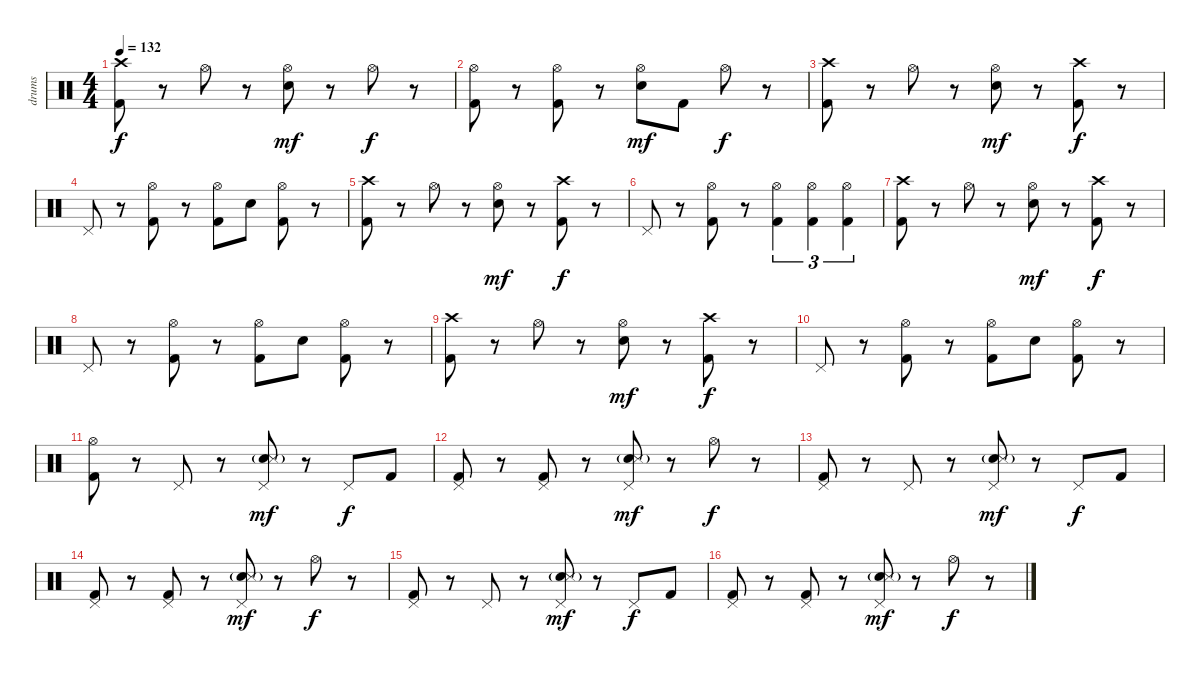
\track ("drums" "drums") {instrument percussion}
\staff {score}
\articulation defaults
\ts (4 4)
\tempo 132
\clef neutral
\ks c
("Crash high (hit)" "Kick (hit) 2").8{dy f} r.8 "Hi-Hat (open)".8 r.8 ("Hi-Hat (open)" "Snare (hit) 2").8{dy mf} r.8 "Hi-Hat (open)".8{dy f} r.8 |
("Hi-Hat (open)" "Kick (hit) 2").8 r.8 ("Hi-Hat (open)" "Kick (hit) 2").8 r.8 ("Hi-Hat (open)" "Snare (hit) 2").8{dy mf} "Kick (hit) 2".8 "Hi-Hat (open)".8{dy f} r.8 |
("Crash high (hit)" "Kick (hit) 2").8 r.8 "Hi-Hat (open)".8 r.8 ("Hi-Hat (open)" "Snare (hit) 2").8{dy mf} r.8 ("Crash high (hit)" "Kick (hit) 2").8{dy f} r.8 |
"Pedal Hi-Hat (hit)".8 r.8 ("Hi-Hat (open)" "Kick (hit) 2").8 r.8 ("Hi-Hat (open)" "Kick (hit) 2").8 "Snare (hit) 2".8 ("Hi-Hat (open)" "Kick (hit) 2").8 r.8 |
("Crash high (hit)" "Kick (hit) 2").8 r.8 "Hi-Hat (open)".8 r.8 ("Hi-Hat (open)" "Snare (hit) 2").8{dy mf} r.8 ("Crash high (hit)" "Kick (hit) 2").8{dy f} r.8 |
"Pedal Hi-Hat (hit)".8 r.8 ("Hi-Hat (open)" "Kick (hit) 2").8 r.8 ("Hi-Hat (open)" "Kick (hit) 2").4{tu (3 2)} ("Hi-Hat (open)" "Kick (hit) 2").4{tu (3 2)} ("Hi-Hat (open)" "Kick (hit) 2").4{tu (3 2)} |
("Crash high (hit)" "Kick (hit) 2").8 r.8 "Hi-Hat (open)".8 r.8 ("Hi-Hat (open)" "Snare (hit) 2").8{dy mf} r.8 ("Crash high (hit)" "Kick (hit) 2").8{dy f} r.8 |
"Pedal Hi-Hat (hit)".8 r.8 ("Hi-Hat (open)" "Kick (hit) 2").8 r.8 ("Hi-Hat (open)" "Kick (hit) 2").8 "Snare (hit) 2".8 ("Hi-Hat (open)" "Kick (hit) 2").8 r.8 |
("Crash high (hit)" "Kick (hit) 2").8 r.8 "Hi-Hat (open)".8 r.8 ("Hi-Hat (open)" "Snare (hit) 2").8{dy mf} r.8 ("Crash high (hit)" "Kick (hit) 2").8{dy f} r.8 |
"Pedal Hi-Hat (hit)".8 r.8 ("Hi-Hat (open)" "Kick (hit) 2").8 r.8 ("Hi-Hat (open)" "Kick (hit) 2").8 "Snare (hit) 2".8 ("Hi-Hat (open)" "Kick (hit) 2").8 r.8 |
("Hi-Hat (open)" "Kick (hit) 2").8 r.8 "Pedal Hi-Hat (hit)".8 r.8 ("Pedal Hi-Hat (hit)" "Electric Snare (hit)"{g} "Snare (side stick) 3").8{dy mf} r.8 "Pedal Hi-Hat (hit)".8{dy f} "Kick (hit) 2".8 |
("Pedal Hi-Hat (hit)" "Kick (hit) 2").8 r.8 ("Pedal Hi-Hat (hit)" "Kick (hit) 2").8 r.8 ("Pedal Hi-Hat (hit)" "Electric Snare (hit)"{g} "Snare (side stick) 3").8{dy mf} r.8 "Hi-Hat (open)".8{dy f} r.8 |
("Pedal Hi-Hat (hit)" "Kick (hit) 2").8 r.8 "Pedal Hi-Hat (hit)".8 r.8 ("Pedal Hi-Hat (hit)" "Electric Snare (hit)"{g} "Snare (side stick) 3").8{dy mf} r.8 "Pedal Hi-Hat (hit)".8{dy f} "Kick (hit) 2".8 |
("Pedal Hi-Hat (hit)" "Kick (hit) 2").8 r.8 ("Pedal Hi-Hat (hit)" "Kick (hit) 2").8 r.8 ("Pedal Hi-Hat (hit)" "Electric Snare (hit)"{g} "Snare (side stick) 3").8{dy mf} r.8 "Hi-Hat (open)".8{dy f} r.8 |
("Pedal Hi-Hat (hit)" "Kick (hit) 2").8 r.8 "Pedal Hi-Hat (hit)".8 r.8 ("Pedal Hi-Hat (hit)" "Electric Snare (hit)"{g} "Snare (side stick) 3").8{dy mf} r.8 "Pedal Hi-Hat (hit)".8{dy f} "Kick (hit) 2".8 |
("Pedal Hi-Hat (hit)" "Kick (hit) 2").8 r.8 ("Pedal Hi-Hat (hit)" "Kick (hit) 2").8 r.8 ("Pedal Hi-Hat (hit)" "Electric Snare (hit)"{g} "Snare (side stick) 3").8{dy mf} r.8 "Hi-Hat (open)".8{dy f} r.8
